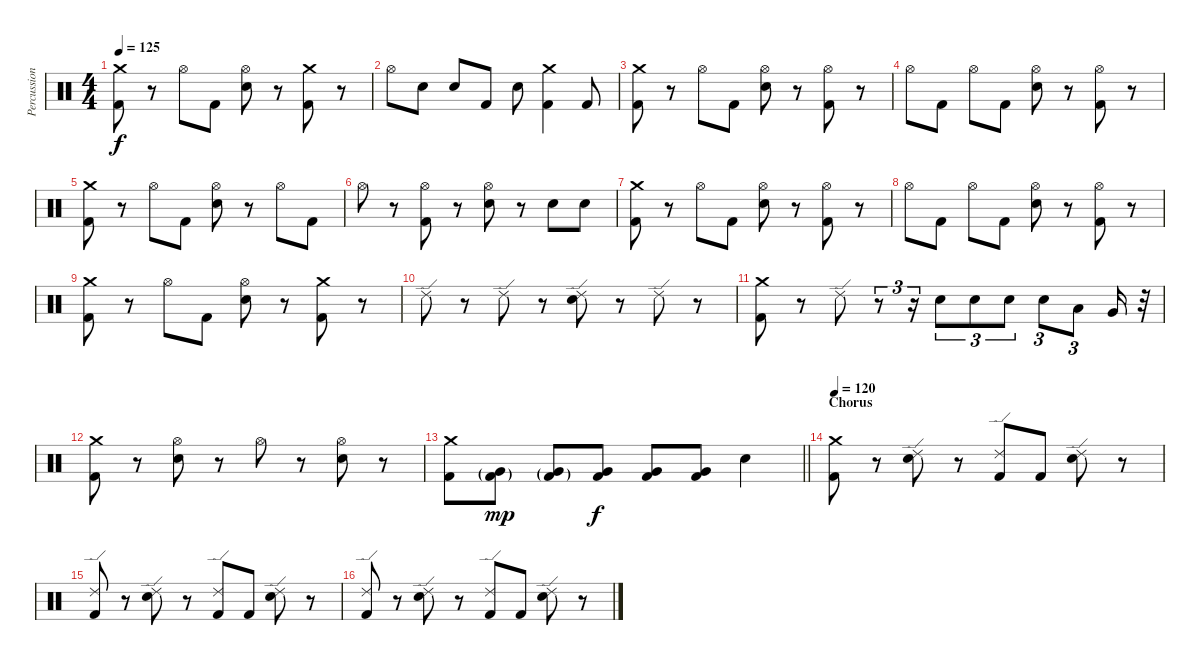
\track ("Percussion" "Percussion") {instrument percussion}
\staff {score}
\articulation defaults
\ts (4 4)
\tempo 125
\clef neutral
\ks c
("Crash medium (hit)" "Kick (hit) 2").8{dy f} r.8 "Hi-Hat (open)".8 "Kick (hit) 2".8 ("Hi-Hat (open)" "Electric Snare (hit)").8 r.8 ("Crash medium (hit)" "Kick (hit) 2").8 r.8 |
"Hi-Hat (open)".8 "Electric Snare (hit)".8 "Electric Snare (hit)".8 "Kick (hit) 2".8 "Electric Snare (hit)".8 ("Crash medium (hit)" "Kick (hit) 2").4 "Kick (hit) 2".8 |
("Crash medium (hit)" "Kick (hit) 2").8 r.8 "Hi-Hat (open)".8 "Kick (hit) 2".8 ("Hi-Hat (open)" "Electric Snare (hit)").8 r.8 ("Hi-Hat (open)" "Kick (hit) 2").8 r.8 |
"Hi-Hat (open)".8 "Kick (hit) 2".8 "Hi-Hat (open)".8 "Kick (hit) 2".8 ("Hi-Hat (open)" "Electric Snare (hit)").8 r.8 ("Hi-Hat (open)" "Kick (hit) 2").8 r.8 |
("Crash medium (hit)" "Kick (hit) 2").8 r.8 "Hi-Hat (open)".8 "Kick (hit) 2".8 ("Hi-Hat (open)" "Electric Snare (hit)").8 r.8 "Hi-Hat (open)".8 "Kick (hit) 2".8 |
"Hi-Hat (open)".8 r.8 ("Hi-Hat (open)" "Kick (hit) 2").8 r.8 ("Hi-Hat (open)" "Electric Snare (hit)").8 r.8 "Electric Snare (hit)".8 "Electric Snare (hit)".8 |
("Crash medium (hit)" "Kick (hit) 2").8 r.8 "Hi-Hat (open)".8 "Kick (hit) 2".8 ("Hi-Hat (open)" "Electric Snare (hit)").8 r.8 ("Hi-Hat (open)" "Kick (hit) 2").8 r.8 |
"Hi-Hat (open)".8 "Kick (hit) 2".8 "Hi-Hat (open)".8 "Kick (hit) 2".8 ("Hi-Hat (open)" "Electric Snare (hit)").8 r.8 ("Hi-Hat (open)" "Kick (hit) 2").8 r.8 |
("Crash medium (hit)" "Kick (hit) 2").8 r.8 "Hi-Hat (open)".8 "Kick (hit) 2".8 ("Hi-Hat (open)" "Electric Snare (hit)").8 r.8 ("Crash medium (hit)" "Kick (hit) 2").8 r.8 |
"Ride (edge) 2".8 r.8 "Ride (edge) 2".8 r.8 ("Ride (edge) 2" "Electric Snare (hit)").8 r.8 "Ride (edge) 2".8 r.8 |
("Crash medium (hit)" "Kick (hit) 2").8 r.8 "Ride (edge) 2".8 r.8{tu (3 2)} r.16{tu (3 2)} "Electric Snare (hit)".8{tu (3 2)} "Electric Snare (hit)".8{tu (3 2)} "Electric Snare (hit)".8{tu (3 2)} "Electric Snare (hit)".8{tu (3 2)} "Low Tom (hit)".8{tu (3 2)} "Very Low Tom (hit)".16 r.32{tu (3 2)} |
("Crash medium (hit)" "Kick (hit) 2").8 r.8 ("Hi-Hat (open)" "Electric Snare (hit)").8 r.8 "Hi-Hat (open)".8 r.8 ("Hi-Hat (open)" "Electric Snare (hit)").8 r.8 |
\barLineRight lightlight
("Crash medium (hit)" "Kick (hit) 2").8 ("Very Low Tom (hit)"{g} "Kick (hit) 2"{g}).8{dy mp} ("Very Low Tom (hit)"{g} "Kick (hit) 2"{g}).8 ("Very Low Tom (hit)" "Kick (hit) 2").8{dy f} ("Very Low Tom (hit)" "Kick (hit) 2").8 ("Very Low Tom (hit)" "Kick (hit) 2").8 "Electric Snare (hit)".4 |
\section ("" "Chorus")
\tempo 120
("Crash medium (hit)" "Kick (hit) 2").8 r.8 ("Ride (edge) 2" "Electric Snare (hit)").8 r.8 ("Ride (edge) 2" "Kick (hit) 2").8 "Kick (hit) 2".8 ("Ride (edge) 2" "Electric Snare (hit)").8 r.8 |
("Ride (edge) 2" "Kick (hit) 2").8 r.8 ("Ride (edge) 2" "Electric Snare (hit)").8 r.8 ("Ride (edge) 2" "Kick (hit) 2").8 "Kick (hit) 2".8 ("Ride (edge) 2" "Electric Snare (hit)").8 r.8 |
("Ride (edge) 2" "Kick (hit) 2").8 r.8 ("Ride (edge) 2" "Electric Snare (hit)").8 r.8 ("Ride (edge) 2" "Kick (hit) 2").8 "Kick (hit) 2".8 ("Ride (edge) 2" "Electric Snare (hit)").8 r.8
